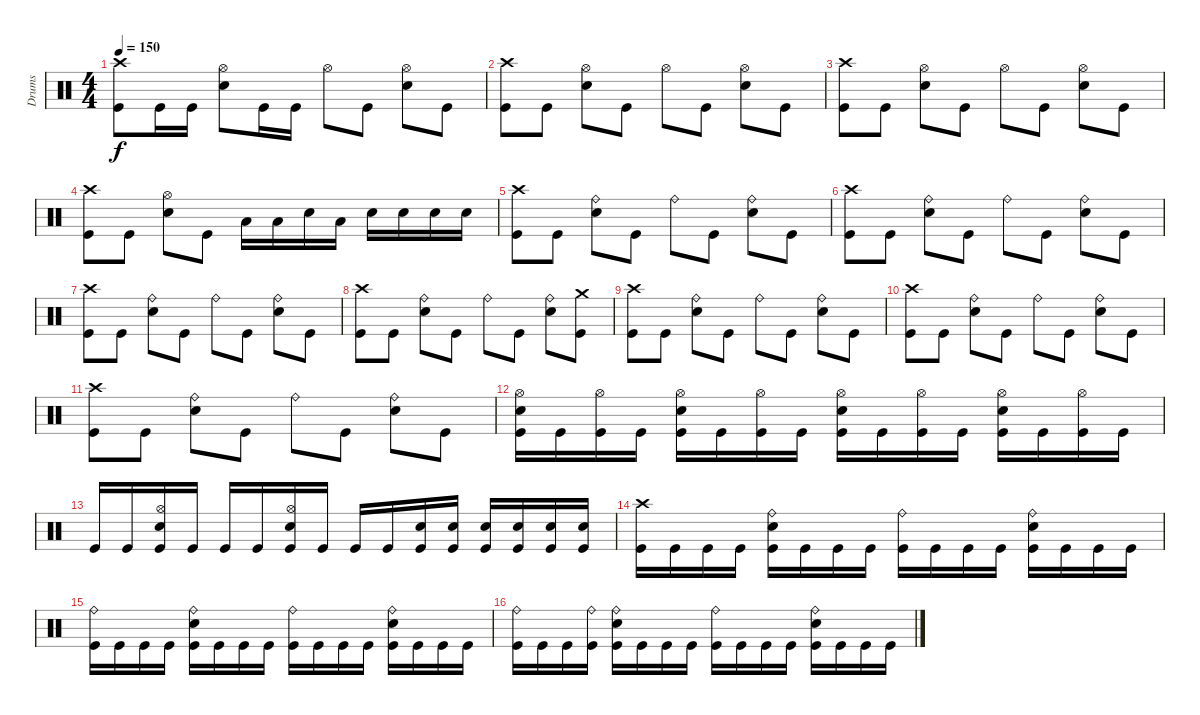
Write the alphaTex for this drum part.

\track ("Drums" "Drums") {instrument percussion}
\staff {score}
\articulation defaults
\ts (4 4)
\tempo 150
\clef neutral
\ks c
("Crash high (hit)" "Kick (hit)").8{dy f} "Kick (hit)".16 "Kick (hit)".16 ("Hi-Hat (open)" "Electric Snare (hit)").8 "Kick (hit)".16 "Kick (hit)".16 "Hi-Hat (open)".8 "Kick (hit)".8 ("Hi-Hat (open)" "Electric Snare (hit)").8 "Kick (hit)".8 |
("Crash high (hit)" "Kick (hit)").8 "Kick (hit)".8 ("Hi-Hat (open)" "Electric Snare (hit)").8 "Kick (hit)".8 "Hi-Hat (open)".8 "Kick (hit)".8 ("Hi-Hat (open)" "Electric Snare (hit)").8 "Kick (hit)".8 |
("Crash high (hit)" "Kick (hit)").8 "Kick (hit)".8 ("Hi-Hat (open)" "Electric Snare (hit)").8 "Kick (hit)".8 "Hi-Hat (open)".8 "Kick (hit)".8 ("Hi-Hat (open)" "Electric Snare (hit)").8 "Kick (hit)".8 |
("Crash high (hit)" "Kick (hit)").8 "Kick (hit)".8 ("Hi-Hat (open)" "Electric Snare (hit)").8 "Kick (hit)".8 "Low Tom (hit)".16 "Low Tom (hit)".16 "Electric Snare (hit)".16 "Low Tom (hit)".16 "Electric Snare (hit)".16 "Electric Snare (hit)".16 "Electric Snare (hit)".16 "Electric Snare (hit)".16 |
("Crash high (hit)" "Kick (hit)").8 "Kick (hit)".8 ("Ride (bell)" "Electric Snare (hit)").8 "Kick (hit)".8 "Ride (bell)".8 "Kick (hit)".8 ("Ride (bell)" "Electric Snare (hit)").8 "Kick (hit)".8 |
("Crash high (hit)" "Kick (hit)").8 "Kick (hit)".8 ("Ride (bell)" "Electric Snare (hit)").8 "Kick (hit)".8 "Ride (bell)".8 "Kick (hit)".8 ("Ride (bell)" "Electric Snare (hit)").8 "Kick (hit)".8 |
("Crash high (hit)" "Kick (hit)").8 "Kick (hit)".8 ("Ride (bell)" "Electric Snare (hit)").8 "Kick (hit)".8 "Ride (bell)".8 "Kick (hit)".8 ("Ride (bell)" "Electric Snare (hit)").8 "Kick (hit)".8 |
("Crash high (hit)" "Kick (hit)").8 "Kick (hit)".8 ("Ride (bell)" "Electric Snare (hit)").8 "Kick (hit)".8 "Ride (bell)".8 "Kick (hit)".8 ("Ride (bell)" "Electric Snare (hit)").8 ("Crash medium (hit)" "Kick (hit)").8 |
("Crash high (hit)" "Kick (hit)").8 "Kick (hit)".8 ("Ride (bell)" "Electric Snare (hit)").8 "Kick (hit)".8 "Ride (bell)".8 "Kick (hit)".8 ("Ride (bell)" "Electric Snare (hit)").8 "Kick (hit)".8 |
("Crash high (hit)" "Kick (hit)").8 "Kick (hit)".8 ("Ride (bell)" "Electric Snare (hit)").8 "Kick (hit)".8 "Ride (bell)".8 "Kick (hit)".8 ("Ride (bell)" "Electric Snare (hit)").8 "Kick (hit)".8 |
("Crash high (hit)" "Kick (hit)").8 "Kick (hit)".8 ("Ride (bell)" "Electric Snare (hit)").8 "Kick (hit)".8 "Ride (bell)".8 "Kick (hit)".8 ("Ride (bell)" "Electric Snare (hit)").8 "Kick (hit)".8 |
("Hi-Hat (open)" "Electric Snare (hit)" "Kick (hit)").16 "Kick (hit)".16 ("Hi-Hat (open)" "Kick (hit)").16 "Kick (hit)".16 ("Hi-Hat (open)" "Electric Snare (hit)" "Kick (hit)").16 "Kick (hit)".16 ("Hi-Hat (open)" "Kick (hit)").16 "Kick (hit)".16 ("Hi-Hat (open)" "Electric Snare (hit)" "Kick (hit)").16 "Kick (hit)".16 ("Hi-Hat (open)" "Kick (hit)").16 "Kick (hit)".16 ("Hi-Hat (open)" "Electric Snare (hit)" "Kick (hit)").16 "Kick (hit)".16 ("Hi-Hat (open)" "Kick (hit)").16 "Kick (hit)".16 |
"Kick (hit)".16 "Kick (hit)".16 ("Hi-Hat (open)" "Electric Snare (hit)" "Kick (hit)").16 "Kick (hit)".16 "Kick (hit)".16 "Kick (hit)".16 ("Hi-Hat (open)" "Electric Snare (hit)" "Kick (hit)").16 "Kick (hit)".16 "Kick (hit)".16 "Kick (hit)".16 ("Electric Snare (hit)" "Kick (hit)").16 ("Electric Snare (hit)" "Kick (hit)").16 ("Electric Snare (hit)" "Kick (hit)").16 ("Electric Snare (hit)" "Kick (hit)").16 ("Electric Snare (hit)" "Kick (hit)").16 ("Electric Snare (hit)" "Kick (hit)").16 |
("Crash high (hit)" "Kick (hit)").16 "Kick (hit)".16 "Kick (hit)".16 "Kick (hit)".16 ("Ride (bell)" "Electric Snare (hit)" "Kick (hit)").16 "Kick (hit)".16 "Kick (hit)".16 "Kick (hit)".16 ("Ride (bell)" "Kick (hit)").16 "Kick (hit)".16 "Kick (hit)".16 "Kick (hit)".16 ("Ride (bell)" "Electric Snare (hit)" "Kick (hit)").16 "Kick (hit)".16 "Kick (hit)".16 "Kick (hit)".16 |
("Ride (bell)" "Kick (hit)").16 "Kick (hit)".16 "Kick (hit)".16 "Kick (hit)".16 ("Ride (bell)" "Electric Snare (hit)" "Kick (hit)").16 "Kick (hit)".16 "Kick (hit)".16 "Kick (hit)".16 ("Ride (bell)" "Kick (hit)").16 "Kick (hit)".16 "Kick (hit)".16 "Kick (hit)".16 ("Ride (bell)" "Electric Snare (hit)" "Kick (hit)").16 "Kick (hit)".16 "Kick (hit)".16 "Kick (hit)".16 |
("Ride (bell)" "Kick (hit)").16 "Kick (hit)".16 "Kick (hit)".16 ("Ride (bell)" "Kick (hit)").16 ("Ride (bell)" "Electric Snare (hit)" "Kick (hit)").16 "Kick (hit)".16 "Kick (hit)".16 "Kick (hit)".16 ("Ride (bell)" "Kick (hit)").16 "Kick (hit)".16 "Kick (hit)".16 "Kick (hit)".16 ("Ride (bell)" "Electric Snare (hit)" "Kick (hit)").16 "Kick (hit)".16 "Kick (hit)".16 "Kick (hit)".16
